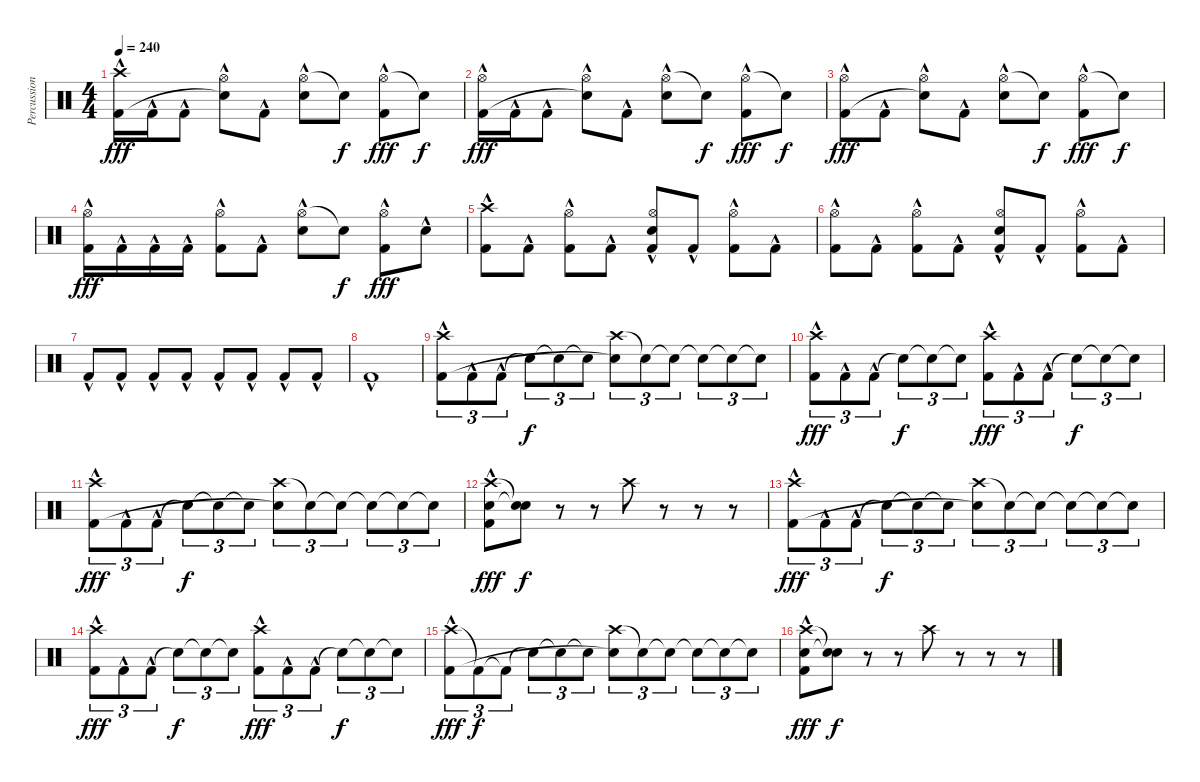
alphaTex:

\track ("Percussion" "Percussion") {instrument percussion}
\staff {score}
\articulation defaults
\ts (4 4)
\tempo 240
\clef neutral
\ks c
("Crash high (hit)"{hac} "Kick (hit) 2"{hac}).16{dy fff} "Kick (hit) 2"{hac}.16 "Kick (hit) 2"{hac}.8 ("Hi-Hat (open)"{hac} "Snare (hit)"{t}).8 "Kick (hit) 2"{hac}.8 ("Hi-Hat (open)"{hac} "Electric Snare (hit)"{hac}).8 "Snare (hit)"{t}.8{dy f} ("Hi-Hat (open)"{hac} "Kick (hit) 2"{hac}).8{dy fff} "Snare (hit)"{t}.8{dy f} |
("Hi-Hat (open)"{hac} "Kick (hit) 2"{hac}).16{dy fff} "Kick (hit) 2"{hac}.16 "Kick (hit) 2"{hac}.8 ("Hi-Hat (open)"{hac} "Snare (hit)"{t}).8 "Kick (hit) 2"{hac}.8 ("Hi-Hat (open)"{hac} "Electric Snare (hit)"{hac}).8 "Snare (hit)"{t}.8{dy f} ("Hi-Hat (open)"{hac} "Kick (hit) 2"{hac}).8{dy fff} "Snare (hit)"{t}.8{dy f} |
("Hi-Hat (open)"{hac} "Kick (hit) 2"{hac}).8{dy fff} "Kick (hit) 2"{hac}.8 ("Hi-Hat (open)"{hac} "Snare (hit)"{t}).8 "Kick (hit) 2"{hac}.8 ("Hi-Hat (open)"{hac} "Electric Snare (hit)"{hac}).8 "Snare (hit)"{t}.8{dy f} ("Hi-Hat (open)"{hac} "Kick (hit) 2"{hac}).8{dy fff} "Snare (hit)"{t}.8{dy f} |
("Hi-Hat (open)"{hac} "Kick (hit) 2"{hac}).16{dy fff} "Kick (hit) 2"{hac}.16 "Kick (hit) 2"{hac}.16 "Kick (hit) 2"{hac}.16 ("Hi-Hat (open)"{hac} "Kick (hit) 2"{hac}).8 "Kick (hit) 2"{hac}.8 ("Hi-Hat (open)"{hac} "Electric Snare (hit)"{hac}).8 "Snare (hit)"{t}.8{dy f} ("Hi-Hat (open)"{hac} "Kick (hit) 2"{hac}).8{dy fff} "Electric Snare (hit)"{hac}.8 |
("Crash high (hit)"{hac} "Kick (hit) 2"{hac}).8 "Kick (hit) 2"{hac}.8 ("Hi-Hat (open)"{hac} "Kick (hit) 2"{hac}).8 "Kick (hit) 2"{hac}.8 ("Hi-Hat (open)"{hac} "Electric Snare (hit)"{hac} "Kick (hit) 2"{hac}).8 "Kick (hit) 2"{hac}.8 ("Hi-Hat (open)"{hac} "Kick (hit) 2"{hac}).8 "Kick (hit) 2"{hac}.8 |
("Hi-Hat (open)"{hac} "Kick (hit) 2"{hac}).8 "Kick (hit) 2"{hac}.8 ("Hi-Hat (open)"{hac} "Kick (hit) 2"{hac}).8 "Kick (hit) 2"{hac}.8 ("Hi-Hat (open)"{hac} "Electric Snare (hit)"{hac} "Kick (hit) 2"{hac}).8 "Kick (hit) 2"{hac}.8 ("Hi-Hat (open)"{hac} "Kick (hit) 2"{hac}).8 "Kick (hit) 2"{hac}.8 |
"Kick (hit) 2"{hac}.8 "Kick (hit) 2"{hac}.8 "Kick (hit) 2"{hac}.8 "Kick (hit) 2"{hac}.8 "Kick (hit) 2"{hac}.8 "Kick (hit) 2"{hac}.8 "Kick (hit) 2"{hac}.8 "Kick (hit) 2"{hac}.8 |
"Kick (hit) 2"{hac}.1 |
("Crash high (hit)" "Kick (hit) 2"{hac}).8{tu (3 2)} "Kick (hit) 2"{hac}.8{tu (3 2)} "Kick (hit) 2"{hac}.8{tu (3 2)} "Snare (hit)"{t}.8{tu (3 2) dy f} "Snare (hit)"{t}.8{tu (3 2)} "Snare (hit)"{t}.8{tu (3 2)} ("Crash high (hit)" "Snare (hit)"{t}).8{tu (3 2)} "Snare (hit)"{t}.8{tu (3 2)} "Snare (hit)"{t}.8{tu (3 2)} "Snare (hit)"{t}.8{tu (3 2)} "Snare (hit)"{t}.8{tu (3 2)} "Snare (hit)"{t}.8{tu (3 2)} |
("Crash high (hit)" "Kick (hit) 2"{hac}).8{tu (3 2) dy fff} "Kick (hit) 2"{hac}.8{tu (3 2)} "Kick (hit) 2"{hac}.8{tu (3 2)} "Snare (hit)"{t}.8{tu (3 2) dy f} "Snare (hit)"{t}.8{tu (3 2)} "Snare (hit)"{t}.8{tu (3 2)} ("Crash high (hit)" "Kick (hit) 2"{hac}).8{tu (3 2) dy fff} "Kick (hit) 2"{hac}.8{tu (3 2)} "Kick (hit) 2"{hac}.8{tu (3 2)} "Snare (hit)"{t}.8{tu (3 2) dy f} "Snare (hit)"{t}.8{tu (3 2)} "Snare (hit)"{t}.8{tu (3 2)} |
("Crash high (hit)" "Kick (hit) 2"{hac}).8{tu (3 2) dy fff} "Kick (hit) 2"{hac}.8{tu (3 2)} "Kick (hit) 2"{hac}.8{tu (3 2)} "Snare (hit)"{t}.8{tu (3 2) dy f} "Snare (hit)"{t}.8{tu (3 2)} "Snare (hit)"{t}.8{tu (3 2)} ("Crash high (hit)" "Snare (hit)"{t}).8{tu (3 2)} "Snare (hit)"{t}.8{tu (3 2)} "Snare (hit)"{t}.8{tu (3 2)} "Snare (hit)"{t}.8{tu (3 2)} "Snare (hit)"{t}.8{tu (3 2)} "Snare (hit)"{t}.8{tu (3 2)} |
("Crash high (hit)" "Electric Snare (hit)"{hac} "Kick (hit) 2"{hac}).8{dy fff} ("Snare (hit)"{t} "Snare (hit)"{t}).8{dy f} r.8 r.8 "Crash high (hit)".8 r.8 r.8 r.8 |
("Crash high (hit)" "Kick (hit) 2"{hac}).8{tu (3 2) dy fff} "Kick (hit) 2"{hac}.8{tu (3 2)} "Kick (hit) 2"{hac}.8{tu (3 2)} "Snare (hit)"{t}.8{tu (3 2) dy f} "Snare (hit)"{t}.8{tu (3 2)} "Snare (hit)"{t}.8{tu (3 2)} ("Crash high (hit)" "Snare (hit)"{t}).8{tu (3 2)} "Snare (hit)"{t}.8{tu (3 2)} "Snare (hit)"{t}.8{tu (3 2)} "Snare (hit)"{t}.8{tu (3 2)} "Snare (hit)"{t}.8{tu (3 2)} "Snare (hit)"{t}.8{tu (3 2)} |
("Crash high (hit)" "Kick (hit) 2"{hac}).8{tu (3 2) dy fff} "Kick (hit) 2"{hac}.8{tu (3 2)} "Kick (hit) 2"{hac}.8{tu (3 2)} "Snare (hit)"{t}.8{tu (3 2) dy f} "Snare (hit)"{t}.8{tu (3 2)} "Snare (hit)"{t}.8{tu (3 2)} ("Crash high (hit)" "Kick (hit) 2"{hac}).8{tu (3 2) dy fff} "Kick (hit) 2"{hac}.8{tu (3 2)} "Kick (hit) 2"{hac}.8{tu (3 2)} "Snare (hit)"{t}.8{tu (3 2) dy f} "Snare (hit)"{t}.8{tu (3 2)} "Snare (hit)"{t}.8{tu (3 2)} |
("Crash high (hit)" "Kick (hit) 2"{hac}).8{tu (3 2) dy fff} "Kick (hit) 2"{t}.8{tu (3 2) dy f} "Kick (hit) 2"{t}.8{tu (3 2)} "Snare (hit)"{t}.8{tu (3 2)} "Snare (hit)"{t}.8{tu (3 2)} "Snare (hit)"{t}.8{tu (3 2)} ("Crash high (hit)" "Snare (hit)"{t}).8{tu (3 2)} "Snare (hit)"{t}.8{tu (3 2)} "Snare (hit)"{t}.8{tu (3 2)} "Snare (hit)"{t}.8{tu (3 2)} "Snare (hit)"{t}.8{tu (3 2)} "Snare (hit)"{t}.8{tu (3 2)} |
("Crash high (hit)" "Electric Snare (hit)"{hac} "Kick (hit) 2"{hac}).8{dy fff} ("Snare (hit)"{t} "Snare (hit)"{t}).8{dy f} r.8 r.8 "Crash high (hit)".8 r.8 r.8 r.8
